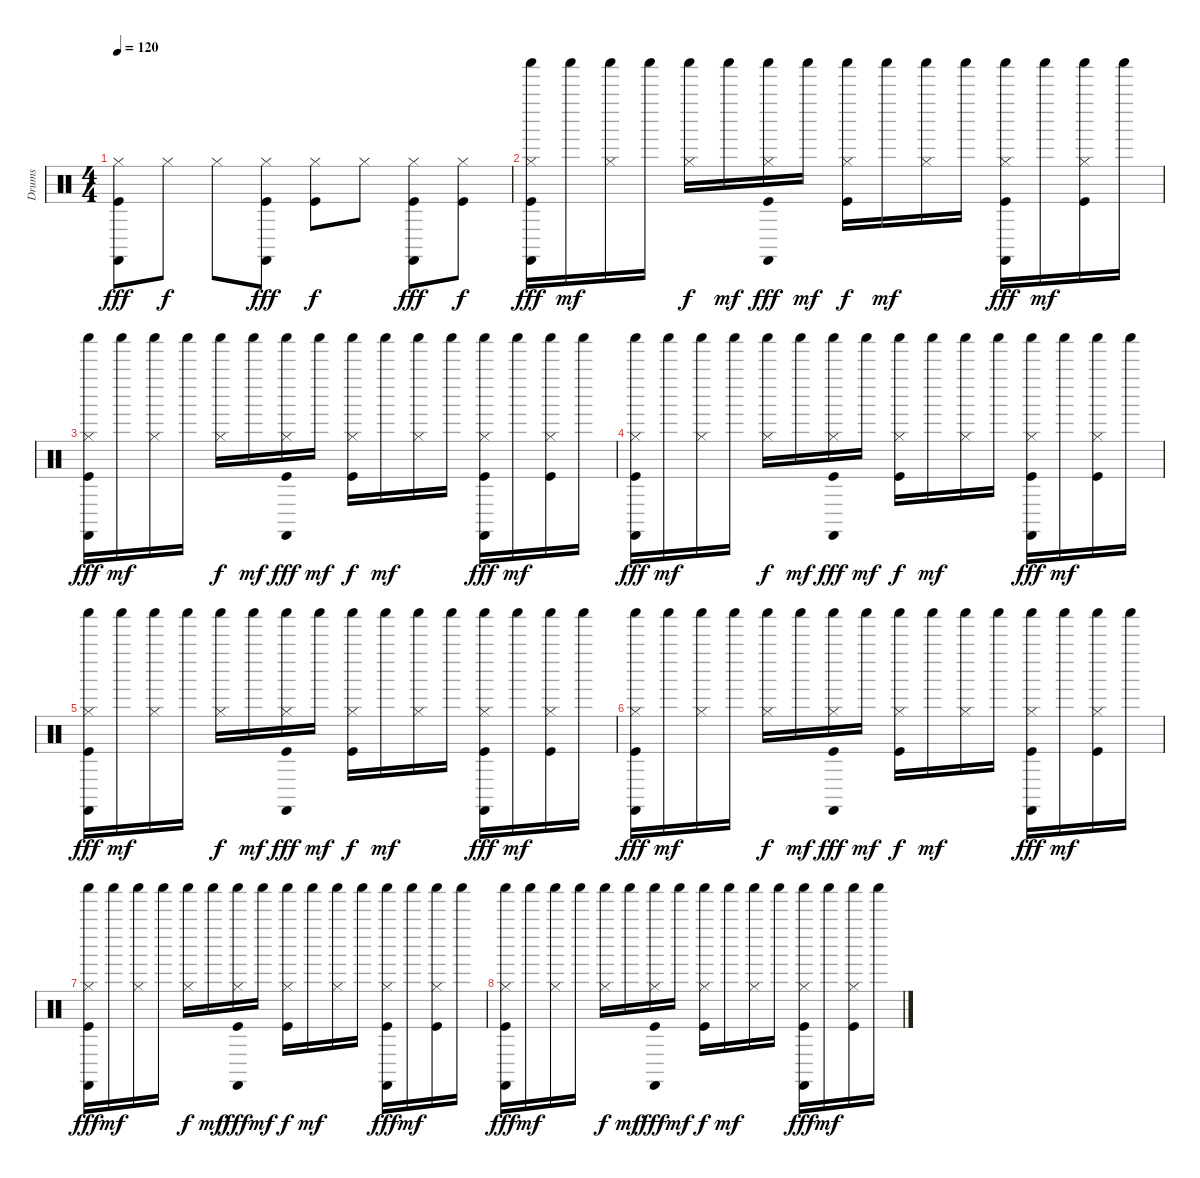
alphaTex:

\track ("Drums" "Drums") {instrument percussion}
\staff {score}
\articulation defaults
\ts (4 4)
\tempo 120
\clef neutral
\ks c
("Hi-Hat (closed)" "Castanets (hit)" "Kick (hit)").8{dy fff} "Hi-Hat (closed)".8{dy f} "Hi-Hat (closed)".8 ("Hi-Hat (closed)" "Castanets (hit)" "Kick (hit)").8{dy fff} ("Hi-Hat (closed)" "Kick (hit)").8{dy f} "Hi-Hat (closed)".8 ("Hi-Hat (closed)" "Castanets (hit)" "Kick (hit)").8{dy fff} ("Hi-Hat (closed)" "Kick (hit)").8{dy f} |
("Shaker (hit)" "Hi-Hat (closed)" "Castanets (hit)" "Kick (hit)").16{dy fff} "Shaker (hit)".16{dy mf} ("Shaker (hit)" "Hi-Hat (closed)").16 "Shaker (hit)".16 ("Shaker (hit)" "Hi-Hat (closed)").16{dy f} "Shaker (hit)".16{dy mf} ("Shaker (hit)" "Hi-Hat (closed)" "Castanets (hit)" "Kick (hit)").16{dy fff} "Shaker (hit)".16{dy mf} ("Shaker (hit)" "Hi-Hat (closed)" "Kick (hit)").16{dy f} "Shaker (hit)".16{dy mf} ("Shaker (hit)" "Hi-Hat (closed)").16 "Shaker (hit)".16 ("Shaker (hit)" "Hi-Hat (closed)" "Castanets (hit)" "Kick (hit)").16{dy fff} "Shaker (hit)".16{dy mf} ("Shaker (hit)" "Hi-Hat (closed)" "Kick (hit)").16 "Shaker (hit)".16 |
("Shaker (hit)" "Hi-Hat (closed)" "Castanets (hit)" "Kick (hit)").16{dy fff} "Shaker (hit)".16{dy mf} ("Shaker (hit)" "Hi-Hat (closed)").16 "Shaker (hit)".16 ("Shaker (hit)" "Hi-Hat (closed)").16{dy f} "Shaker (hit)".16{dy mf} ("Shaker (hit)" "Hi-Hat (closed)" "Castanets (hit)" "Kick (hit)").16{dy fff} "Shaker (hit)".16{dy mf} ("Shaker (hit)" "Hi-Hat (closed)" "Kick (hit)").16{dy f} "Shaker (hit)".16{dy mf} ("Shaker (hit)" "Hi-Hat (closed)").16 "Shaker (hit)".16 ("Shaker (hit)" "Hi-Hat (closed)" "Castanets (hit)" "Kick (hit)").16{dy fff} "Shaker (hit)".16{dy mf} ("Shaker (hit)" "Hi-Hat (closed)" "Kick (hit)").16 "Shaker (hit)".16 |
("Shaker (hit)" "Hi-Hat (closed)" "Castanets (hit)" "Kick (hit)").16{dy fff} "Shaker (hit)".16{dy mf} ("Shaker (hit)" "Hi-Hat (closed)").16 "Shaker (hit)".16 ("Shaker (hit)" "Hi-Hat (closed)").16{dy f} "Shaker (hit)".16{dy mf} ("Shaker (hit)" "Hi-Hat (closed)" "Castanets (hit)" "Kick (hit)").16{dy fff} "Shaker (hit)".16{dy mf} ("Shaker (hit)" "Hi-Hat (closed)" "Kick (hit)").16{dy f} "Shaker (hit)".16{dy mf} ("Shaker (hit)" "Hi-Hat (closed)").16 "Shaker (hit)".16 ("Shaker (hit)" "Hi-Hat (closed)" "Castanets (hit)" "Kick (hit)").16{dy fff} "Shaker (hit)".16{dy mf} ("Shaker (hit)" "Hi-Hat (closed)" "Kick (hit)").16 "Shaker (hit)".16 |
("Shaker (hit)" "Hi-Hat (closed)" "Castanets (hit)" "Kick (hit)").16{dy fff} "Shaker (hit)".16{dy mf} ("Shaker (hit)" "Hi-Hat (closed)").16 "Shaker (hit)".16 ("Shaker (hit)" "Hi-Hat (closed)").16{dy f} "Shaker (hit)".16{dy mf} ("Shaker (hit)" "Hi-Hat (closed)" "Castanets (hit)" "Kick (hit)").16{dy fff} "Shaker (hit)".16{dy mf} ("Shaker (hit)" "Hi-Hat (closed)" "Kick (hit)").16{dy f} "Shaker (hit)".16{dy mf} ("Shaker (hit)" "Hi-Hat (closed)").16 "Shaker (hit)".16 ("Shaker (hit)" "Hi-Hat (closed)" "Castanets (hit)" "Kick (hit)").16{dy fff} "Shaker (hit)".16{dy mf} ("Shaker (hit)" "Hi-Hat (closed)" "Kick (hit)").16 "Shaker (hit)".16 |
("Shaker (hit)" "Hi-Hat (closed)" "Castanets (hit)" "Kick (hit)").16{dy fff} "Shaker (hit)".16{dy mf} ("Shaker (hit)" "Hi-Hat (closed)").16 "Shaker (hit)".16 ("Shaker (hit)" "Hi-Hat (closed)").16{dy f} "Shaker (hit)".16{dy mf} ("Shaker (hit)" "Hi-Hat (closed)" "Castanets (hit)" "Kick (hit)").16{dy fff} "Shaker (hit)".16{dy mf} ("Shaker (hit)" "Hi-Hat (closed)" "Kick (hit)").16{dy f} "Shaker (hit)".16{dy mf} ("Shaker (hit)" "Hi-Hat (closed)").16 "Shaker (hit)".16 ("Shaker (hit)" "Hi-Hat (closed)" "Castanets (hit)" "Kick (hit)").16{dy fff} "Shaker (hit)".16{dy mf} ("Shaker (hit)" "Hi-Hat (closed)" "Kick (hit)").16 "Shaker (hit)".16 |
("Shaker (hit)" "Hi-Hat (closed)" "Castanets (hit)" "Kick (hit)").16{dy fff} "Shaker (hit)".16{dy mf} ("Shaker (hit)" "Hi-Hat (closed)").16 "Shaker (hit)".16 ("Shaker (hit)" "Hi-Hat (closed)").16{dy f} "Shaker (hit)".16{dy mf} ("Shaker (hit)" "Hi-Hat (closed)" "Castanets (hit)" "Kick (hit)").16{dy fff} "Shaker (hit)".16{dy mf} ("Shaker (hit)" "Hi-Hat (closed)" "Kick (hit)").16{dy f} "Shaker (hit)".16{dy mf} ("Shaker (hit)" "Hi-Hat (closed)").16 "Shaker (hit)".16 ("Shaker (hit)" "Hi-Hat (closed)" "Castanets (hit)" "Kick (hit)").16{dy fff} "Shaker (hit)".16{dy mf} ("Shaker (hit)" "Hi-Hat (closed)" "Kick (hit)").16 "Shaker (hit)".16 |
("Shaker (hit)" "Hi-Hat (closed)" "Castanets (hit)" "Kick (hit)").16{dy fff} "Shaker (hit)".16{dy mf} ("Shaker (hit)" "Hi-Hat (closed)").16 "Shaker (hit)".16 ("Shaker (hit)" "Hi-Hat (closed)").16{dy f} "Shaker (hit)".16{dy mf} ("Shaker (hit)" "Hi-Hat (closed)" "Castanets (hit)" "Kick (hit)").16{dy fff} "Shaker (hit)".16{dy mf} ("Shaker (hit)" "Hi-Hat (closed)" "Kick (hit)").16{dy f} "Shaker (hit)".16{dy mf} ("Shaker (hit)" "Hi-Hat (closed)").16 "Shaker (hit)".16 ("Shaker (hit)" "Hi-Hat (closed)" "Castanets (hit)" "Kick (hit)").16{dy fff} "Shaker (hit)".16{dy mf} ("Shaker (hit)" "Hi-Hat (closed)" "Kick (hit)").16 "Shaker (hit)".16
